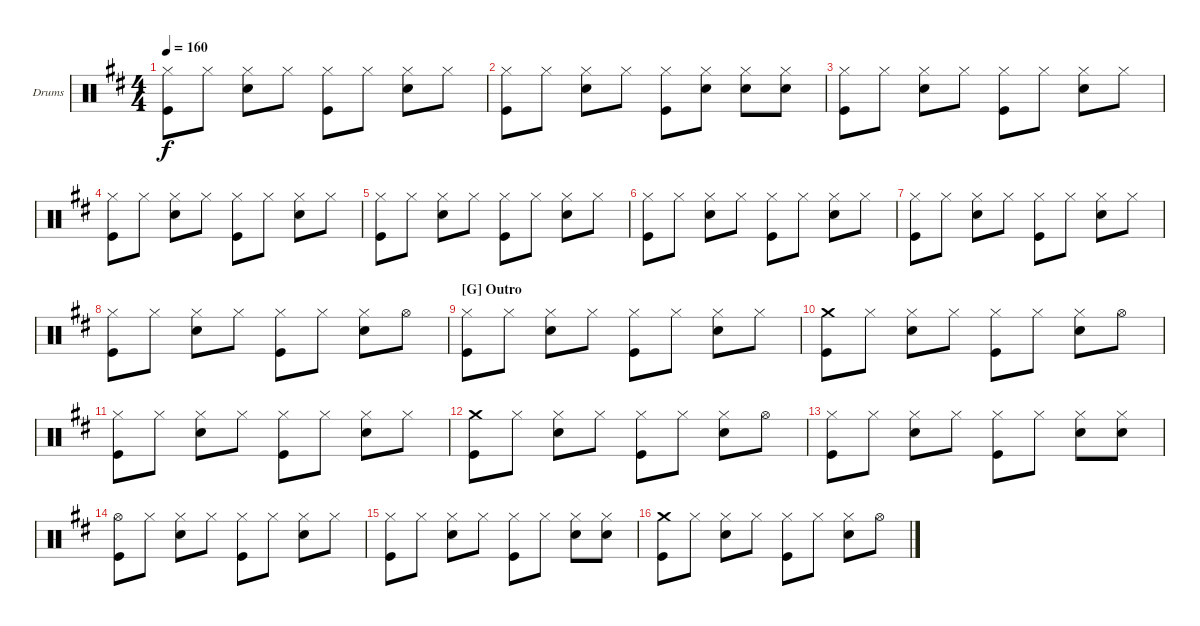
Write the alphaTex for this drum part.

\defaultSystemsLayout 4
\bracketExtendMode groupsimilarinstruments
\firstSystemTrackNameOrientation horizontal
\otherSystemsTrackNameOrientation horizontal
\track ("Drumkit" "Drums") {instrument percussion}
\staff {score}
\articulation defaults
\ts (4 4)
\tempo 160
\clef neutral
\ks d
("Hi-Hat (closed)" "Kick (hit)").8{dy f} "Hi-Hat (closed)".8 ("Hi-Hat (closed)" "Snare (hit) 2").8 "Hi-Hat (closed)".8 ("Hi-Hat (closed)" "Kick (hit)").8 "Hi-Hat (closed)".8 ("Hi-Hat (closed)" "Snare (hit) 2").8 "Hi-Hat (closed)".8 |
("Hi-Hat (closed)" "Kick (hit)").8 "Hi-Hat (closed)".8 ("Hi-Hat (closed)" "Snare (hit) 2").8 "Hi-Hat (closed)".8 ("Hi-Hat (closed)" "Kick (hit)").8 ("Hi-Hat (closed)" "Snare (hit) 2").8 ("Snare (hit) 2" "Hi-Hat (closed)").8 ("Snare (hit) 2" "Hi-Hat (closed)").8 |
("Kick (hit)" "Hi-Hat (closed)").8 "Hi-Hat (closed)".8 ("Snare (hit) 2" "Hi-Hat (closed)").8 "Hi-Hat (closed)".8 ("Kick (hit)" "Hi-Hat (closed)").8 "Hi-Hat (closed)".8 ("Snare (hit) 2" "Hi-Hat (closed)").8 "Hi-Hat (closed)".8 |
("Hi-Hat (closed)" "Kick (hit)").8 "Hi-Hat (closed)".8 ("Hi-Hat (closed)" "Snare (hit) 2").8 "Hi-Hat (closed)".8 ("Hi-Hat (closed)" "Kick (hit)").8 "Hi-Hat (closed)".8 ("Hi-Hat (closed)" "Snare (hit) 2").8 "Hi-Hat (closed)".8 |
("Hi-Hat (closed)" "Kick (hit)").8 "Hi-Hat (closed)".8 ("Hi-Hat (closed)" "Snare (hit) 2").8 "Hi-Hat (closed)".8 ("Hi-Hat (closed)" "Kick (hit)").8 "Hi-Hat (closed)".8 ("Hi-Hat (closed)" "Snare (hit) 2").8 "Hi-Hat (closed)".8 |
("Hi-Hat (closed)" "Kick (hit)").8 "Hi-Hat (closed)".8 ("Hi-Hat (closed)" "Snare (hit) 2").8 "Hi-Hat (closed)".8 ("Hi-Hat (closed)" "Kick (hit)").8 "Hi-Hat (closed)".8 ("Snare (hit) 2" "Hi-Hat (closed)").8 "Hi-Hat (closed)".8 |
("Kick (hit)" "Hi-Hat (closed)").8 "Hi-Hat (closed)".8 ("Snare (hit) 2" "Hi-Hat (closed)").8 "Hi-Hat (closed)".8 ("Kick (hit)" "Hi-Hat (closed)").8 "Hi-Hat (closed)".8 ("Snare (hit) 2" "Hi-Hat (closed)").8 "Hi-Hat (closed)".8 |
("Kick (hit)" "Hi-Hat (closed)").8 "Hi-Hat (closed)".8 ("Snare (hit) 2" "Hi-Hat (closed)").8 "Hi-Hat (closed)".8 ("Kick (hit)" "Hi-Hat (closed)").8 "Hi-Hat (closed)".8 ("Snare (hit) 2" "Hi-Hat (closed)").8 "Hi-Hat (open)".8 |
\section ("G" "Outro")
("Kick (hit)" "Hi-Hat (closed)").8 "Hi-Hat (closed)".8 ("Snare (hit) 2" "Hi-Hat (closed)").8 "Hi-Hat (closed)".8 ("Kick (hit)" "Hi-Hat (closed)").8 "Hi-Hat (closed)".8 ("Snare (hit) 2" "Hi-Hat (closed)").8 "Hi-Hat (closed)".8 |
("Crash medium (hit)" "Kick (hit)").8 "Hi-Hat (closed)".8 ("Snare (hit) 2" "Hi-Hat (closed)").8 "Hi-Hat (closed)".8 ("Kick (hit)" "Hi-Hat (closed)").8 "Hi-Hat (closed)".8 ("Snare (hit) 2" "Hi-Hat (closed)").8 "Hi-Hat (open)".8 |
("Kick (hit)" "Hi-Hat (closed)").8 "Hi-Hat (closed)".8 ("Snare (hit) 2" "Hi-Hat (closed)").8 "Hi-Hat (closed)".8 ("Kick (hit)" "Hi-Hat (closed)").8 "Hi-Hat (closed)".8 ("Snare (hit) 2" "Hi-Hat (closed)").8 "Hi-Hat (closed)".8 |
("Crash medium (hit)" "Kick (hit)").8 "Hi-Hat (closed)".8 ("Snare (hit) 2" "Hi-Hat (closed)").8 "Hi-Hat (closed)".8 ("Kick (hit)" "Hi-Hat (closed)").8 "Hi-Hat (closed)".8 ("Snare (hit) 2" "Hi-Hat (closed)").8 "Hi-Hat (open)".8 |
("Kick (hit)" "Hi-Hat (closed)").8 "Hi-Hat (closed)".8 ("Snare (hit) 2" "Hi-Hat (closed)").8 "Hi-Hat (closed)".8 ("Kick (hit)" "Hi-Hat (closed)").8 "Hi-Hat (closed)".8 ("Snare (hit) 2" "Hi-Hat (closed)").8 ("Snare (hit) 2" "Hi-Hat (closed)").8 |
("Kick (hit)" "Hi-Hat (open)").8 "Hi-Hat (closed)".8 ("Snare (hit) 2" "Hi-Hat (closed)").8 "Hi-Hat (closed)".8 ("Kick (hit)" "Hi-Hat (closed)").8 "Hi-Hat (closed)".8 ("Snare (hit) 2" "Hi-Hat (closed)").8 "Hi-Hat (closed)".8 |
("Kick (hit)" "Hi-Hat (closed)").8 "Hi-Hat (closed)".8 ("Snare (hit) 2" "Hi-Hat (closed)").8 "Hi-Hat (closed)".8 ("Kick (hit)" "Hi-Hat (closed)").8 "Hi-Hat (closed)".8 ("Snare (hit) 2" "Hi-Hat (closed)").8 ("Snare (hit) 2" "Hi-Hat (closed)").8 |
("Crash medium (hit)" "Kick (hit)").8 "Hi-Hat (closed)".8 ("Snare (hit) 2" "Hi-Hat (closed)").8 "Hi-Hat (closed)".8 ("Kick (hit)" "Hi-Hat (closed)").8 "Hi-Hat (closed)".8 ("Snare (hit) 2" "Hi-Hat (closed)").8 "Hi-Hat (open)".8
